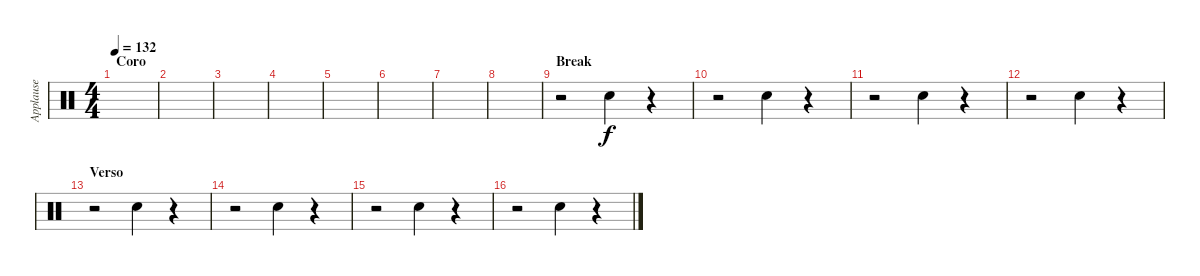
\track ("Applause" "Applause") {instrument percussion}
\staff {score}
\articulation defaults
\ts (4 4)
\section ("" "Coro")
\tempo 132
\clef neutral
\ks c
|
|
|
|
|
|
|
|
\section ("" "Break")
r.2 "Hand Clap (hit)".4 r.4 |
r.2 "Hand Clap (hit)".4 r.4 |
r.2 "Hand Clap (hit)".4 r.4 |
r.2 "Hand Clap (hit)".4 r.4 |
\section ("" "Verso")
r.2 "Hand Clap (hit)".4 r.4 |
r.2 "Hand Clap (hit)".4 r.4 |
r.2 "Hand Clap (hit)".4 r.4 |
r.2 "Hand Clap (hit)".4 r.4
